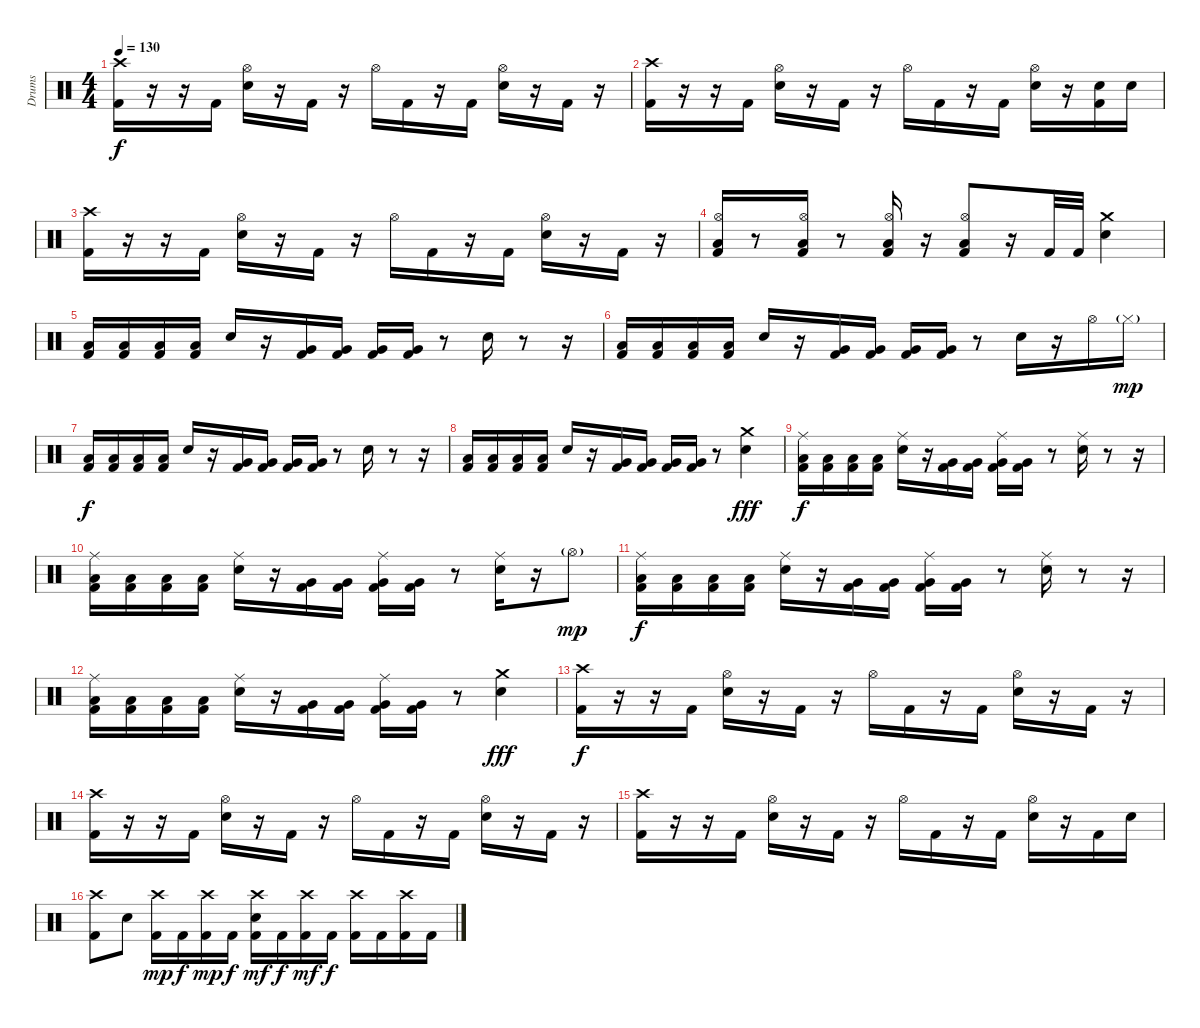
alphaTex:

\track ("Drums" "Drums") {instrument percussion}
\staff {score}
\articulation defaults
\ts (4 4)
\tempo 130
\clef neutral
\ks c
("Crash high (hit)" "Kick (hit) 2").16{dy f} r.16 r.16 "Kick (hit) 2".16 ("Hi-Hat (open)" "Electric Snare (hit)").16 r.16 "Kick (hit) 2".16 r.16 "Hi-Hat (open)".16 "Kick (hit) 2".16 r.16 "Kick (hit) 2".16 ("Hi-Hat (open)" "Electric Snare (hit)").16 r.16 "Kick (hit) 2".16 r.16 |
("Crash high (hit)" "Kick (hit) 2").16 r.16 r.16 "Kick (hit) 2".16 ("Hi-Hat (open)" "Electric Snare (hit)").16 r.16 "Kick (hit) 2".16 r.16 "Hi-Hat (open)".16 "Kick (hit) 2".16 r.16 "Kick (hit) 2".16 ("Hi-Hat (open)" "Electric Snare (hit)").16 r.16 ("Electric Snare (hit)" "Kick (hit) 2").16 "Electric Snare (hit)".16 |
("Crash high (hit)" "Kick (hit) 2").16 r.16 r.16 "Kick (hit) 2".16 ("Hi-Hat (open)" "Electric Snare (hit)").16 r.16 "Kick (hit) 2".16 r.16 "Hi-Hat (open)".16 "Kick (hit) 2".16 r.16 "Kick (hit) 2".16 ("Hi-Hat (open)" "Electric Snare (hit)").16 r.16 "Kick (hit) 2".16 r.16 |
("Hi-Hat (open)" "Low Tom (hit)" "Kick (hit) 2").16 r.8 ("Hi-Hat (open)" "Low Tom (hit)" "Kick (hit) 2").16 r.8 ("Hi-Hat (open)" "Low Tom (hit)" "Kick (hit) 2").16 r.16 ("Hi-Hat (open)" "Low Tom (hit)" "Kick (hit) 2").8 r.16 "Kick (hit) 2".32 "Kick (hit) 2".32 ("Crash medium (hit)" "Electric Snare (hit)").4 |
("Low Tom (hit)" "Kick (hit) 2").16 ("Low Tom (hit)" "Kick (hit) 2").16 ("Low Tom (hit)" "Kick (hit) 2").16 ("Low Tom (hit)" "Kick (hit) 2").16 "Electric Snare (hit)".16 r.16 ("Very Low Tom (hit)" "Kick (hit) 2").16 ("Very Low Tom (hit)" "Kick (hit) 2").16 ("Very Low Tom (hit)" "Kick (hit) 2").16 ("Very Low Tom (hit)" "Kick (hit) 2").16 r.8 "Electric Snare (hit)".16 r.8 r.16 |
("Low Tom (hit)" "Kick (hit) 2").16 ("Low Tom (hit)" "Kick (hit) 2").16 ("Low Tom (hit)" "Kick (hit) 2").16 ("Low Tom (hit)" "Kick (hit) 2").16 "Electric Snare (hit)".16 r.16 ("Very Low Tom (hit)" "Kick (hit) 2").16 ("Very Low Tom (hit)" "Kick (hit) 2").16 ("Very Low Tom (hit)" "Kick (hit) 2").16 ("Very Low Tom (hit)" "Kick (hit) 2").16 r.8 "Electric Snare (hit)".16 r.16 "Hi-Hat (open)".16 "Hi-Hat (closed)"{g}.16{dy mp} |
("Low Tom (hit)" "Kick (hit) 2").16{dy f} ("Low Tom (hit)" "Kick (hit) 2").16 ("Low Tom (hit)" "Kick (hit) 2").16 ("Low Tom (hit)" "Kick (hit) 2").16 "Electric Snare (hit)".16 r.16 ("Very Low Tom (hit)" "Kick (hit) 2").16 ("Very Low Tom (hit)" "Kick (hit) 2").16 ("Very Low Tom (hit)" "Kick (hit) 2").16 ("Very Low Tom (hit)" "Kick (hit) 2").16 r.8 "Electric Snare (hit)".16 r.8 r.16 |
("Low Tom (hit)" "Kick (hit) 2").16 ("Low Tom (hit)" "Kick (hit) 2").16 ("Low Tom (hit)" "Kick (hit) 2").16 ("Low Tom (hit)" "Kick (hit) 2").16 "Electric Snare (hit)".16 r.16 ("Very Low Tom (hit)" "Kick (hit) 2").16 ("Very Low Tom (hit)" "Kick (hit) 2").16 ("Very Low Tom (hit)" "Kick (hit) 2").16 ("Very Low Tom (hit)" "Kick (hit) 2").16 r.8 ("Crash medium (hit)" "Electric Snare (hit)").4{dy fff} |
("Ride (middle)" "Low Tom (hit)" "Kick (hit) 2").16{dy f} ("Low Tom (hit)" "Kick (hit) 2").16 ("Low Tom (hit)" "Kick (hit) 2").16 ("Low Tom (hit)" "Kick (hit) 2").16 ("Ride (middle)" "Electric Snare (hit)").16 r.16 ("Very Low Tom (hit)" "Kick (hit) 2").16 ("Very Low Tom (hit)" "Kick (hit) 2").16 ("Ride (middle)" "Very Low Tom (hit)" "Kick (hit) 2").16 ("Very Low Tom (hit)" "Kick (hit) 2").16 r.8 ("Ride (middle)" "Electric Snare (hit)").16 r.8 r.16 |
("Ride (middle)" "Low Tom (hit)" "Kick (hit) 2").16 ("Low Tom (hit)" "Kick (hit) 2").16 ("Low Tom (hit)" "Kick (hit) 2").16 ("Low Tom (hit)" "Kick (hit) 2").16 ("Ride (middle)" "Electric Snare (hit)").16 r.16 ("Very Low Tom (hit)" "Kick (hit) 2").16 ("Very Low Tom (hit)" "Kick (hit) 2").16 ("Ride (middle)" "Very Low Tom (hit)" "Kick (hit) 2").16 ("Very Low Tom (hit)" "Kick (hit) 2").16 r.8 ("Ride (middle)" "Electric Snare (hit)").16 r.16 "Hi-Hat (open)"{g}.8{dy mp} |
("Ride (middle)" "Low Tom (hit)" "Kick (hit) 2").16{dy f} ("Low Tom (hit)" "Kick (hit) 2").16 ("Low Tom (hit)" "Kick (hit) 2").16 ("Low Tom (hit)" "Kick (hit) 2").16 ("Ride (middle)" "Electric Snare (hit)").16 r.16 ("Very Low Tom (hit)" "Kick (hit) 2").16 ("Very Low Tom (hit)" "Kick (hit) 2").16 ("Ride (middle)" "Very Low Tom (hit)" "Kick (hit) 2").16 ("Very Low Tom (hit)" "Kick (hit) 2").16 r.8 ("Ride (middle)" "Electric Snare (hit)").16 r.8 r.16 |
("Ride (middle)" "Low Tom (hit)" "Kick (hit) 2").16 ("Low Tom (hit)" "Kick (hit) 2").16 ("Low Tom (hit)" "Kick (hit) 2").16 ("Low Tom (hit)" "Kick (hit) 2").16 ("Ride (middle)" "Electric Snare (hit)").16 r.16 ("Very Low Tom (hit)" "Kick (hit) 2").16 ("Very Low Tom (hit)" "Kick (hit) 2").16 ("Ride (middle)" "Very Low Tom (hit)" "Kick (hit) 2").16 ("Very Low Tom (hit)" "Kick (hit) 2").16 r.8 ("Crash medium (hit)" "Electric Snare (hit)").4{dy fff} |
("Crash high (hit)" "Kick (hit) 2").16{dy f} r.16 r.16 "Kick (hit) 2".16 ("Hi-Hat (open)" "Electric Snare (hit)").16 r.16 "Kick (hit) 2".16 r.16 "Hi-Hat (open)".16 "Kick (hit) 2".16 r.16 "Kick (hit) 2".16 ("Hi-Hat (open)" "Electric Snare (hit)").16 r.16 "Kick (hit) 2".16 r.16 |
("Crash high (hit)" "Kick (hit) 2").16 r.16 r.16 "Kick (hit) 2".16 ("Hi-Hat (open)" "Electric Snare (hit)").16 r.16 "Kick (hit) 2".16 r.16 "Hi-Hat (open)".16 "Kick (hit) 2".16 r.16 "Kick (hit) 2".16 ("Hi-Hat (open)" "Electric Snare (hit)").16 r.16 "Kick (hit) 2".16 r.16 |
("Crash high (hit)" "Kick (hit) 2").16 r.16 r.16 "Kick (hit) 2".16 ("Hi-Hat (open)" "Electric Snare (hit)").16 r.16 "Kick (hit) 2".16 r.16 "Hi-Hat (open)".16 "Kick (hit) 2".16 r.16 "Kick (hit) 2".16 ("Hi-Hat (open)" "Electric Snare (hit)").16 r.16 "Kick (hit) 2".16 "Electric Snare (hit)".16 |
("Crash high (hit)" "Kick (hit) 2").8 "Electric Snare (hit)".8 ("Crash high (hit)" "Kick (hit) 2").16{dy mp} "Kick (hit) 2".16{dy f} ("Crash high (hit)" "Kick (hit) 2").16{dy mp} "Kick (hit) 2".16{dy f} ("Crash high (hit)" "Electric Snare (hit)" "Kick (hit) 2").16{dy mf} "Kick (hit) 2".16{dy f} ("Crash high (hit)" "Kick (hit) 2").16{dy mf} "Kick (hit) 2".16{dy f} ("Crash high (hit)" "Kick (hit) 2").16 "Kick (hit) 2".16 ("Crash high (hit)" "Kick (hit) 2").16 "Kick (hit) 2".16
